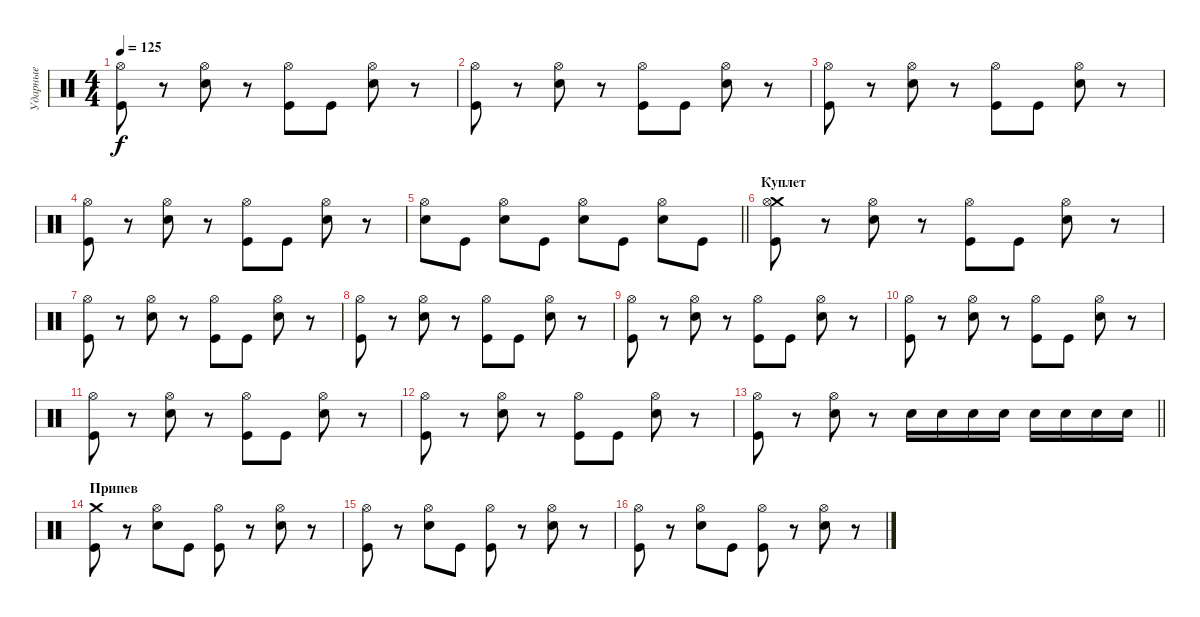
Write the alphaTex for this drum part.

\track ("Ударные" "Ударные") {instrument percussion}
\staff {score}
\articulation defaults
\ts (4 4)
\tempo 125
\clef neutral
\ks c
("Hi-Hat (open)" "Kick (hit)").8{dy f} r.8 ("Hi-Hat (open)" "Electric Snare (hit)").8 r.8 ("Hi-Hat (open)" "Kick (hit)").8 "Kick (hit)".8 ("Hi-Hat (open)" "Electric Snare (hit)").8 r.8 |
("Hi-Hat (open)" "Kick (hit)").8 r.8 ("Hi-Hat (open)" "Electric Snare (hit)").8 r.8 ("Hi-Hat (open)" "Kick (hit)").8 "Kick (hit)".8 ("Hi-Hat (open)" "Electric Snare (hit)").8 r.8 |
("Hi-Hat (open)" "Kick (hit)").8 r.8 ("Hi-Hat (open)" "Electric Snare (hit)").8 r.8 ("Hi-Hat (open)" "Kick (hit)").8 "Kick (hit)".8 ("Hi-Hat (open)" "Electric Snare (hit)").8 r.8 |
("Hi-Hat (open)" "Kick (hit)").8 r.8 ("Hi-Hat (open)" "Electric Snare (hit)").8 r.8 ("Hi-Hat (open)" "Kick (hit)").8 "Kick (hit)".8 ("Hi-Hat (open)" "Electric Snare (hit)").8 r.8 |
\barLineRight lightlight
("Hi-Hat (open)" "Electric Snare (hit)").8 "Kick (hit)".8 ("Hi-Hat (open)" "Electric Snare (hit)").8 "Kick (hit)".8 ("Hi-Hat (open)" "Electric Snare (hit)").8 "Kick (hit)".8 ("Hi-Hat (open)" "Electric Snare (hit)").8 "Kick (hit)".8 |
\section ("" "Куплет")
("Crash medium (hit)" "Hi-Hat (open)" "Kick (hit)").8 r.8 ("Hi-Hat (open)" "Electric Snare (hit)").8 r.8 ("Hi-Hat (open)" "Kick (hit)").8 "Kick (hit)".8 ("Hi-Hat (open)" "Electric Snare (hit)").8 r.8 |
("Hi-Hat (open)" "Kick (hit)").8 r.8 ("Hi-Hat (open)" "Electric Snare (hit)").8 r.8 ("Hi-Hat (open)" "Kick (hit)").8 "Kick (hit)".8 ("Hi-Hat (open)" "Electric Snare (hit)").8 r.8 |
("Hi-Hat (open)" "Kick (hit)").8 r.8 ("Hi-Hat (open)" "Electric Snare (hit)").8 r.8 ("Hi-Hat (open)" "Kick (hit)").8 "Kick (hit)".8 ("Hi-Hat (open)" "Electric Snare (hit)").8 r.8 |
("Hi-Hat (open)" "Kick (hit)").8 r.8 ("Hi-Hat (open)" "Electric Snare (hit)").8 r.8 ("Hi-Hat (open)" "Kick (hit)").8 "Kick (hit)".8 ("Hi-Hat (open)" "Electric Snare (hit)").8 r.8 |
("Hi-Hat (open)" "Kick (hit)").8 r.8 ("Hi-Hat (open)" "Electric Snare (hit)").8 r.8 ("Hi-Hat (open)" "Kick (hit)").8 "Kick (hit)".8 ("Hi-Hat (open)" "Electric Snare (hit)").8 r.8 |
("Hi-Hat (open)" "Kick (hit)").8 r.8 ("Hi-Hat (open)" "Electric Snare (hit)").8 r.8 ("Hi-Hat (open)" "Kick (hit)").8 "Kick (hit)".8 ("Hi-Hat (open)" "Electric Snare (hit)").8 r.8 |
("Hi-Hat (open)" "Kick (hit)").8 r.8 ("Hi-Hat (open)" "Electric Snare (hit)").8 r.8 ("Hi-Hat (open)" "Kick (hit)").8 "Kick (hit)".8 ("Hi-Hat (open)" "Electric Snare (hit)").8 r.8 |
\barLineRight lightlight
("Hi-Hat (open)" "Kick (hit)").8 r.8 ("Hi-Hat (open)" "Electric Snare (hit)").8 r.8 "Electric Snare (hit)".16 "Electric Snare (hit)".16 "Electric Snare (hit)".16 "Electric Snare (hit)".16 "Electric Snare (hit)".16 "Electric Snare (hit)".16 "Electric Snare (hit)".16 "Electric Snare (hit)".16 |
\section ("" "Припев")
("Crash medium (hit)" "Kick (hit)").8 r.8 ("Hi-Hat (open)" "Electric Snare (hit)").8 "Kick (hit)".8 ("Hi-Hat (open)" "Kick (hit)").8 r.8 ("Hi-Hat (open)" "Electric Snare (hit)").8 r.8 |
("Hi-Hat (open)" "Kick (hit)").8 r.8 ("Hi-Hat (open)" "Electric Snare (hit)").8 "Kick (hit)".8 ("Hi-Hat (open)" "Kick (hit)").8 r.8 ("Hi-Hat (open)" "Electric Snare (hit)").8 r.8 |
("Hi-Hat (open)" "Kick (hit)").8 r.8 ("Hi-Hat (open)" "Electric Snare (hit)").8 "Kick (hit)".8 ("Hi-Hat (open)" "Kick (hit)").8 r.8 ("Hi-Hat (open)" "Electric Snare (hit)").8 r.8
